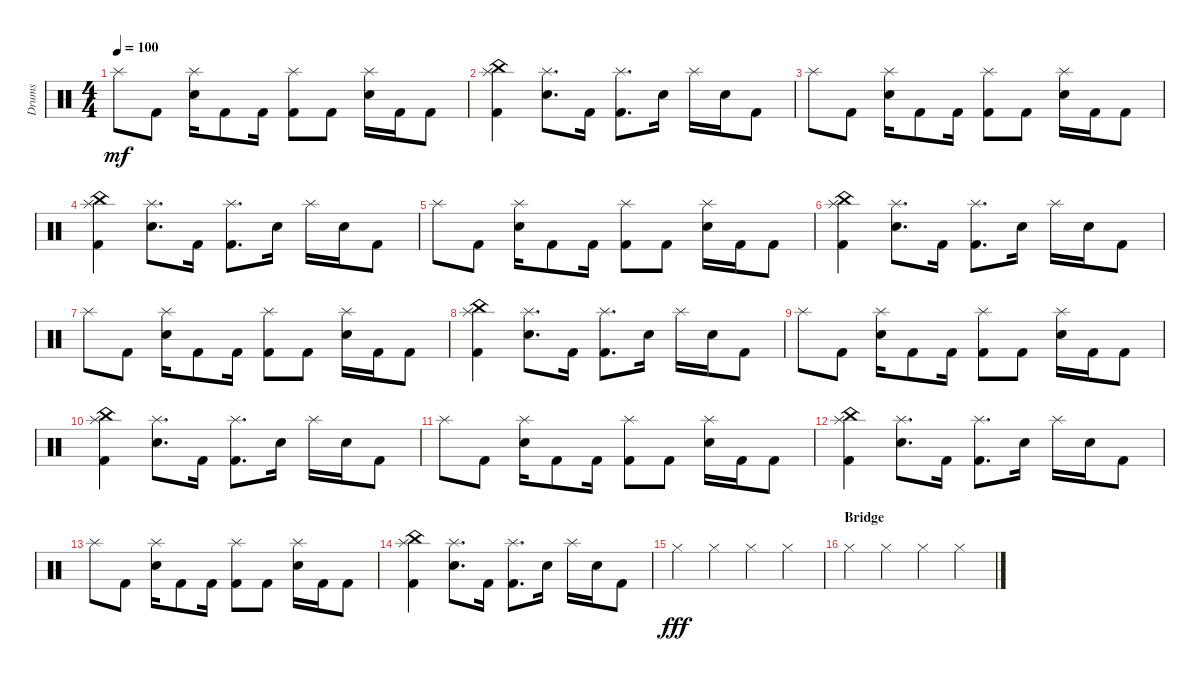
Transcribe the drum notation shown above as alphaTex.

\defaultSystemsLayout 4
\bracketExtendMode groupsimilarinstruments
\otherSystemsTrackNameOrientation horizontal
\track ("Prakarsh" "Drums") {instrument percussion}
\staff {score}
\articulation defaults
\ts (4 4)
\tempo 100
\clef neutral
\ks c "Splash (hit)".8{dy mf beam Down} "Kick (hit) 2".8{beam Down}
("Snare (hit) 2" "Splash (hit)").16{beam Down} "Kick (hit) 2".8{beam Down} "Kick (hit) 2".16{beam Down} ("Kick (hit) 2" "Splash (hit)").8{beam Down} "Kick (hit) 2".8{beam Down} ("Snare (hit) 2" "Splash (hit)").16{beam Down} "Kick (hit) 2".16{beam Down} "Kick (hit) 2".8{beam Down} |
("Kick (hit) 2" "China (hit)" "Splash (hit)").4{beam Down} ("Snare (hit) 2" "Splash (hit)").8{d beam Down} "Kick (hit) 2".16{beam Down} ("Kick (hit) 2" "Splash (hit)").8{d beam Down} "Snare (hit) 2".16{beam Down} "Splash (hit)".16{beam Down} "Snare (hit) 2".16{beam Down} "Kick (hit) 2".8{beam Down} |
"Splash (hit)".8{beam Down} "Kick (hit) 2".8{beam Down} ("Snare (hit) 2" "Splash (hit)").16{beam Down} "Kick (hit) 2".8{beam Down} "Kick (hit) 2".16{beam Down} ("Kick (hit) 2" "Splash (hit)").8{beam Down} "Kick (hit) 2".8{beam Down} ("Snare (hit) 2" "Splash (hit)").16{beam Down} "Kick (hit) 2".16{beam Down} "Kick (hit) 2".8{beam Down} |
("Kick (hit) 2" "China (hit)" "Splash (hit)").4{beam Down} ("Snare (hit) 2" "Splash (hit)").8{d beam Down} "Kick (hit) 2".16{beam Down} ("Kick (hit) 2" "Splash (hit)").8{d beam Down} "Snare (hit) 2".16{beam Down} "Splash (hit)".16{beam Down} "Snare (hit) 2".16{beam Down} "Kick (hit) 2".8{beam Down} |
"Splash (hit)".8{beam Down} "Kick (hit) 2".8{beam Down} ("Snare (hit) 2" "Splash (hit)").16{beam Down} "Kick (hit) 2".8{beam Down} "Kick (hit) 2".16{beam Down} ("Kick (hit) 2" "Splash (hit)").8{beam Down} "Kick (hit) 2".8{beam Down} ("Snare (hit) 2" "Splash (hit)").16{beam Down} "Kick (hit) 2".16{beam Down} "Kick (hit) 2".8{beam Down} |
("Kick (hit) 2" "China (hit)" "Splash (hit)").4{beam Down} ("Snare (hit) 2" "Splash (hit)").8{d beam Down} "Kick (hit) 2".16{beam Down} ("Kick (hit) 2" "Splash (hit)").8{d beam Down} "Snare (hit) 2".16{beam Down} "Splash (hit)".16{beam Down} "Snare (hit) 2".16{beam Down} "Kick (hit) 2".8{beam Down} |
"Splash (hit)".8{beam Down} "Kick (hit) 2".8{beam Down} ("Snare (hit) 2" "Splash (hit)").16{beam Down} "Kick (hit) 2".8{beam Down} "Kick (hit) 2".16{beam Down} ("Kick (hit) 2" "Splash (hit)").8{beam Down} "Kick (hit) 2".8{beam Down} ("Snare (hit) 2" "Splash (hit)").16{beam Down} "Kick (hit) 2".16{beam Down} "Kick (hit) 2".8{beam Down} |
("Kick (hit) 2" "China (hit)" "Splash (hit)").4{beam Down} ("Snare (hit) 2" "Splash (hit)").8{d beam Down} "Kick (hit) 2".16{beam Down} ("Kick (hit) 2" "Splash (hit)").8{d beam Down} "Snare (hit) 2".16{beam Down} "Splash (hit)".16{beam Down} "Snare (hit) 2".16{beam Down} "Kick (hit) 2".8{beam Down} |
"Splash (hit)".8{beam Down} "Kick (hit) 2".8{beam Down} ("Snare (hit) 2" "Splash (hit)").16{beam Down} "Kick (hit) 2".8{beam Down} "Kick (hit) 2".16{beam Down} ("Kick (hit) 2" "Splash (hit)").8{beam Down} "Kick (hit) 2".8{beam Down} ("Snare (hit) 2" "Splash (hit)").16{beam Down} "Kick (hit) 2".16{beam Down} "Kick (hit) 2".8{beam Down} |
("Kick (hit) 2" "China (hit)" "Splash (hit)").4{beam Down} ("Snare (hit) 2" "Splash (hit)").8{d beam Down} "Kick (hit) 2".16{beam Down} ("Kick (hit) 2" "Splash (hit)").8{d beam Down} "Snare (hit) 2".16{beam Down} "Splash (hit)".16{beam Down} "Snare (hit) 2".16{beam Down} "Kick (hit) 2".8{beam Down} |
"Splash (hit)".8{beam Down} "Kick (hit) 2".8{beam Down} ("Snare (hit) 2" "Splash (hit)").16{beam Down} "Kick (hit) 2".8{beam Down} "Kick (hit) 2".16{beam Down} ("Kick (hit) 2" "Splash (hit)").8{beam Down} "Kick (hit) 2".8{beam Down} ("Snare (hit) 2" "Splash (hit)").16{beam Down} "Kick (hit) 2".16{beam Down} "Kick (hit) 2".8{beam Down} |
("Kick (hit) 2" "China (hit)" "Splash (hit)").4{beam Down} ("Snare (hit) 2" "Splash (hit)").8{d beam Down} "Kick (hit) 2".16{beam Down} ("Kick (hit) 2" "Splash (hit)").8{d beam Down} "Snare (hit) 2".16{beam Down} "Splash (hit)".16{beam Down} "Snare (hit) 2".16{beam Down} "Kick (hit) 2".8{beam Down} |
"Splash (hit)".8{beam Down} "Kick (hit) 2".8{beam Down} ("Snare (hit) 2" "Splash (hit)").16{beam Down} "Kick (hit) 2".8{beam Down} "Kick (hit) 2".16{beam Down} ("Kick (hit) 2" "Splash (hit)").8{beam Down} "Kick (hit) 2".8{beam Down} ("Snare (hit) 2" "Splash (hit)").16{beam Down} "Kick (hit) 2".16{beam Down} "Kick (hit) 2".8{beam Down} |
("Kick (hit) 2" "China (hit)" "Splash (hit)").4{beam Down} ("Snare (hit) 2" "Splash (hit)").8{d beam Down} "Kick (hit) 2".16{beam Down} ("Kick (hit) 2" "Splash (hit)").8{d beam Down} "Snare (hit) 2".16{beam Down} "Splash (hit)".16{beam Down} "Snare (hit) 2".16{beam Down} "Kick (hit) 2".8{beam Down} |
"Hi-Hat (closed)".4{dy fff beam Down} "Hi-Hat (closed)".4{beam Down} "Hi-Hat (closed)".4{beam Down} "Hi-Hat (closed)".4{beam Down} |
\section ("" "Bridge")
"Hi-Hat (closed)".4{beam Down} "Hi-Hat (closed)".4{beam Down} "Hi-Hat (closed)".4{beam Down} "Hi-Hat (closed)".4{beam Down}
